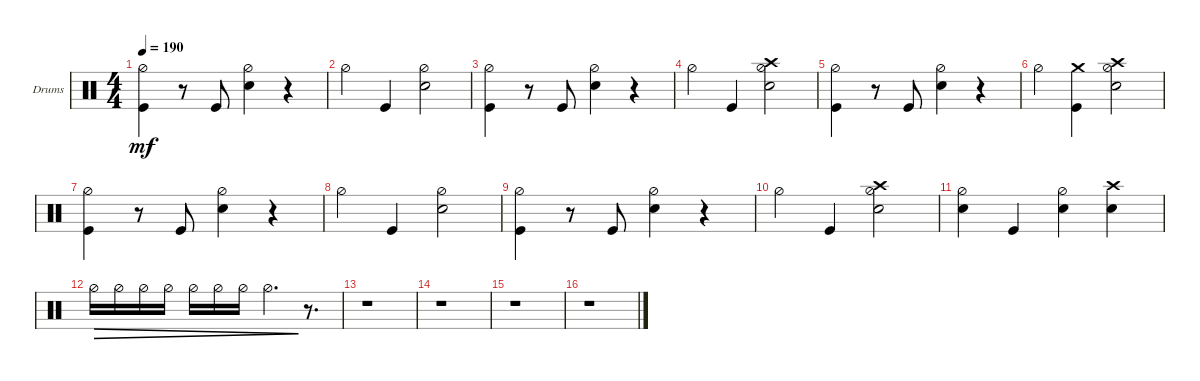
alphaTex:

\defaultSystemsLayout 4
\bracketExtendMode groupsimilarinstruments
\firstSystemTrackNameOrientation horizontal
\otherSystemsTrackNameOrientation horizontal
\track ("Drumkit" "Drums") {instrument percussion}
\staff {score}
\articulation defaults
\ts (4 4)
\tempo 190
\clef neutral
\ks c
("Hi-Hat (half)" "Kick (hit)").4{dy mf} r.8 "Kick (hit)".8 ("Hi-Hat (half)" "Snare (hit) 2").4 r.4 |
"Hi-Hat (half)".4 "Kick (hit)".4 ("Snare (hit) 2" "Hi-Hat (half)").2 |
("Hi-Hat (half)" "Kick (hit)").4 r.8 "Kick (hit)".8 ("Hi-Hat (half)" "Snare (hit) 2").4 r.4 |
"Hi-Hat (half)".4 "Kick (hit)".4 ("Snare (hit) 2" "Hi-Hat (half)" "Crash high (hit)").2 |
("Hi-Hat (half)" "Kick (hit)").4 r.8 "Kick (hit)".8 ("Hi-Hat (half)" "Snare (hit) 2").4 r.4 |
"Hi-Hat (half)".4 ("Kick (hit)" "Crash medium (hit)").4 ("Snare (hit) 2" "Hi-Hat (half)" "Crash high (hit)").2 |
("Hi-Hat (half)" "Kick (hit)").4 r.8 "Kick (hit)".8 ("Hi-Hat (half)" "Snare (hit) 2").4 r.4 |
"Hi-Hat (half)".4 "Kick (hit)".4 ("Snare (hit) 2" "Hi-Hat (half)").2 |
("Hi-Hat (half)" "Kick (hit)").4 r.8 "Kick (hit)".8 ("Hi-Hat (half)" "Snare (hit) 2").4 r.4 |
"Hi-Hat (half)".4 "Kick (hit)".4 ("Hi-Hat (half)" "Crash high (hit)" "Snare (hit) 2").2 |
("Hi-Hat (half)" "Snare (hit) 2").4 "Kick (hit)".4 ("Hi-Hat (half)" "Snare (hit) 2").4 ("Snare (hit) 2" "Crash high (hit)").4 |
"Hi-Hat (half)".16{dec} "Hi-Hat (half)".16{dec} "Hi-Hat (half)".16{dec} "Hi-Hat (half)".16{dec} "Hi-Hat (half)".16{dec} "Hi-Hat (half)".16{dec} "Hi-Hat (half)".16{dec} "Hi-Hat (half)".4{d dec} r.8{d} |
r.1 |
r.1 |
r.1 |
r.1
